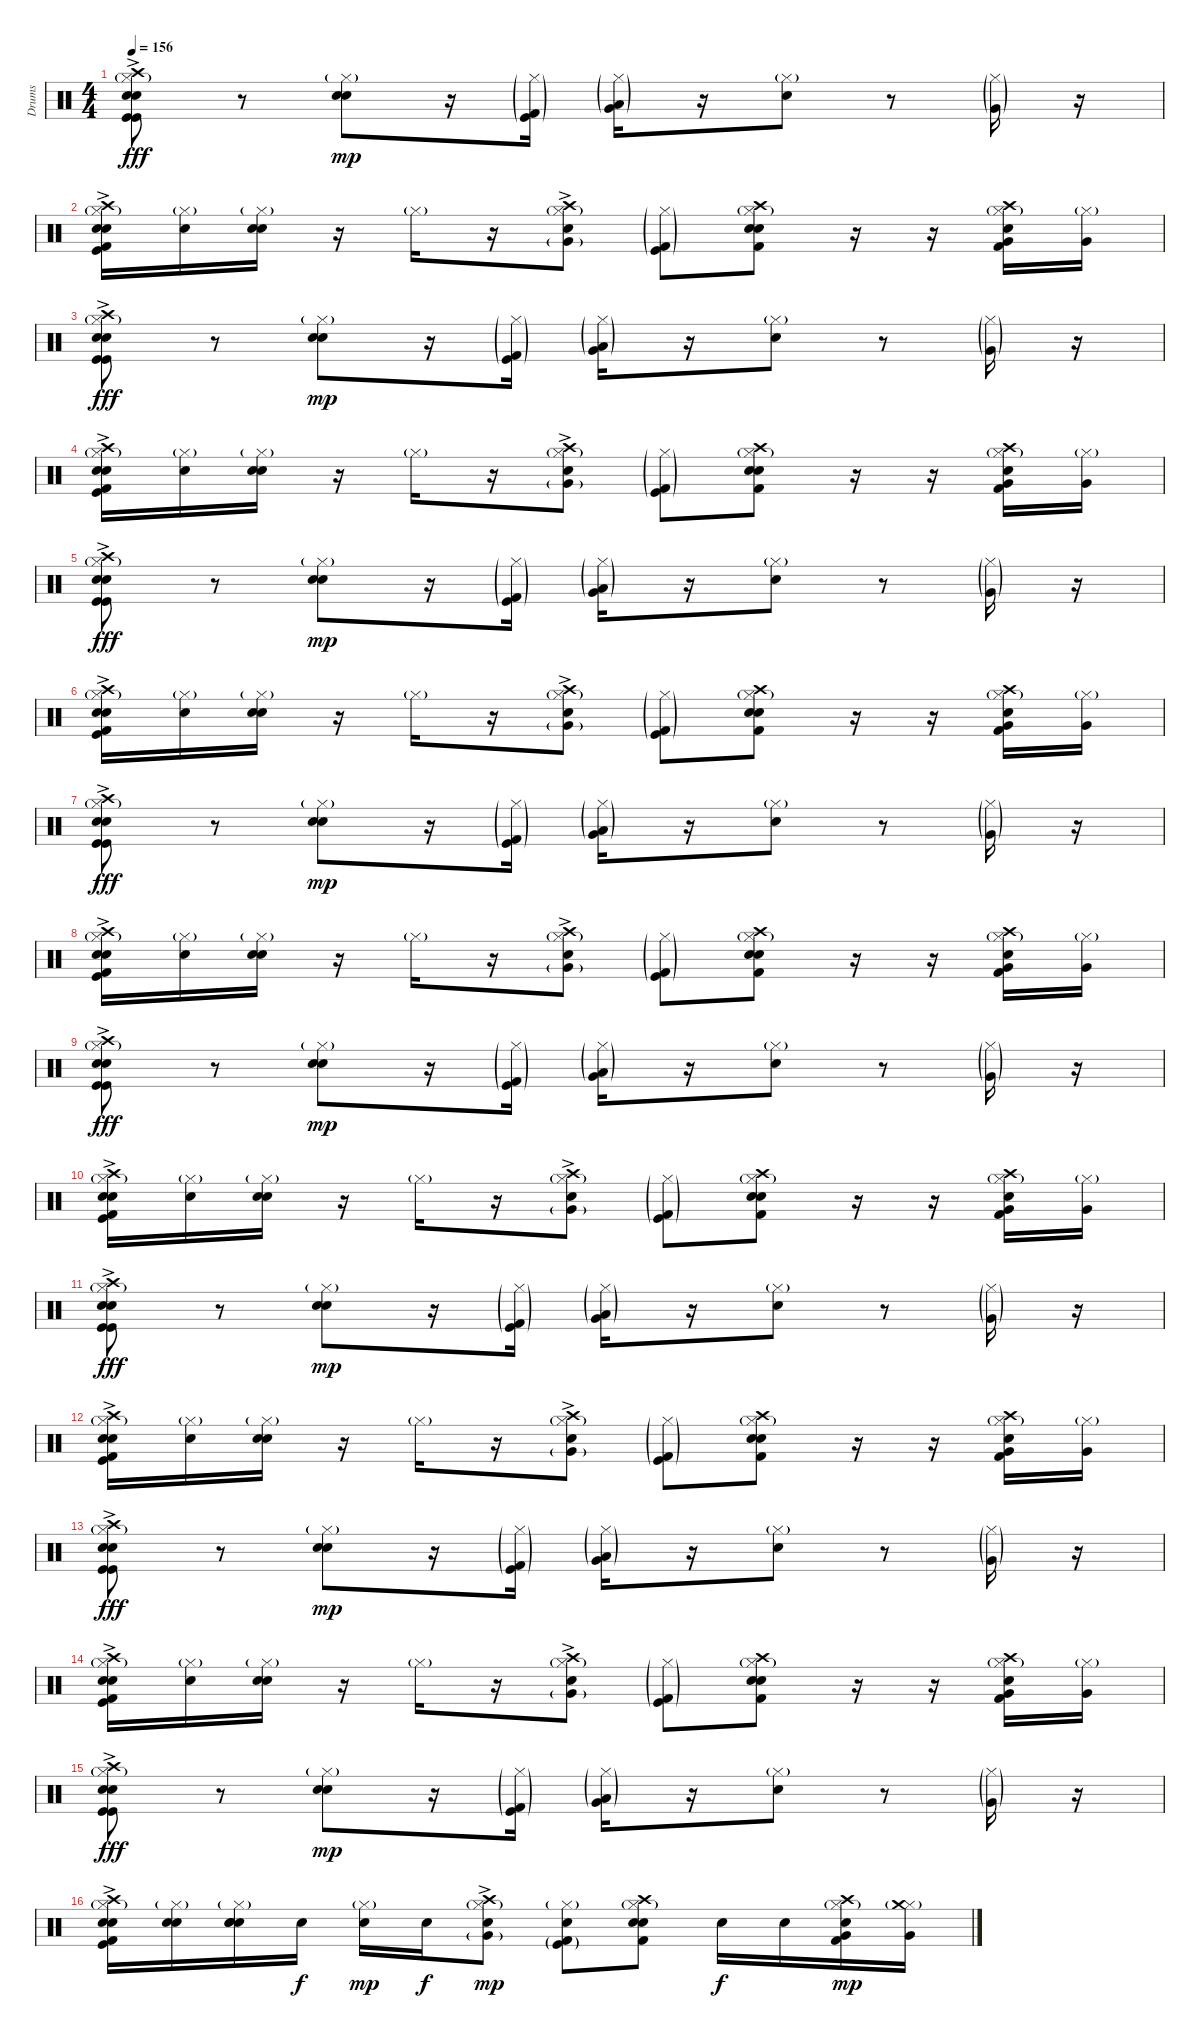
\track ("Drums" "Drums") {instrument percussion}
\staff {score}
\articulation defaults
\ts (4 4)
\tempo 156
\clef neutral
\ks c
("Hi-Hat (closed)"{g} "Electric Snare (hit)"{ac} "Kick (hit)"{ac} "Kick (hit)"{ac} "Electric Snare (hit)"{ac} "Crash high (hit)"{ac}).8{dy fff volume 13} r.8 ("Electric Snare (hit)" "Electric Snare (hit)" "Hi-Hat (closed)"{g}).8{dy mp} r.16 ("Hi-Hat (closed)"{g} "Kick (hit)"{g} "Kick (hit) 2"{g}).16 ("Very Low Tom (hit)"{g} "Low Tom (hit)"{g} "Hi-Hat (closed)"{g}).16 r.16 ("Electric Snare (hit)" "Hi-Hat (closed)"{g}).8 r.8 ("Very Low Tom (hit)"{g} "Hi-Hat (closed)"{g}).16 r.16 |
("Crash high (hit)" "Electric Snare (hit)"{ac} "Electric Snare (hit)"{ac} "Kick (hit) 2"{ac} "Kick (hit)"{ac} "Hi-Hat (closed)"{g}).16{volume 13} ("Electric Snare (hit)" "Hi-Hat (closed)"{g}).16 ("Electric Snare (hit)" "Electric Snare (hit)" "Hi-Hat (closed)"{g}).16 r.16 "Hi-Hat (closed)"{g}.16 r.16 ("Electric Snare (hit)"{ac} "Very Low Tom (hit)"{g} "Hi-Hat (closed)"{g} "Crash high (hit)").8 ("Hi-Hat (closed)"{g} "Kick (hit) 2"{g} "Kick (hit)"{g}).8 ("Electric Snare (hit)" "Electric Snare (hit)" "Hi-Hat (closed)"{g} "Kick (hit) 2" "Crash high (hit)").8 r.16 r.16 ("Very Low Tom (hit)" "Electric Snare (hit)" "Hi-Hat (closed)"{g} "Kick (hit) 2" "Crash high (hit)").16 ("Very Low Tom (hit)" "Hi-Hat (closed)"{g}).16 |
("Hi-Hat (closed)"{g} "Electric Snare (hit)"{ac} "Kick (hit)"{ac} "Kick (hit)"{ac} "Electric Snare (hit)"{ac} "Crash high (hit)"{ac}).8{dy fff volume 13} r.8 ("Electric Snare (hit)" "Electric Snare (hit)" "Hi-Hat (closed)"{g}).8{dy mp} r.16 ("Hi-Hat (closed)"{g} "Kick (hit)"{g} "Kick (hit) 2"{g}).16 ("Very Low Tom (hit)"{g} "Low Tom (hit)"{g} "Hi-Hat (closed)"{g}).16 r.16 ("Electric Snare (hit)" "Hi-Hat (closed)"{g}).8 r.8 ("Very Low Tom (hit)"{g} "Hi-Hat (closed)"{g}).16 r.16 |
("Crash high (hit)" "Electric Snare (hit)"{ac} "Electric Snare (hit)"{ac} "Kick (hit) 2"{ac} "Kick (hit)"{ac} "Hi-Hat (closed)"{g}).16{volume 13} ("Electric Snare (hit)" "Hi-Hat (closed)"{g}).16 ("Electric Snare (hit)" "Electric Snare (hit)" "Hi-Hat (closed)"{g}).16 r.16 "Hi-Hat (closed)"{g}.16 r.16 ("Electric Snare (hit)"{ac} "Very Low Tom (hit)"{g} "Hi-Hat (closed)"{g} "Crash high (hit)").8 ("Hi-Hat (closed)"{g} "Kick (hit) 2"{g} "Kick (hit)"{g}).8 ("Electric Snare (hit)" "Electric Snare (hit)" "Hi-Hat (closed)"{g} "Kick (hit) 2" "Crash high (hit)").8 r.16 r.16 ("Very Low Tom (hit)" "Electric Snare (hit)" "Hi-Hat (closed)"{g} "Kick (hit) 2" "Crash high (hit)").16 ("Very Low Tom (hit)" "Hi-Hat (closed)"{g}).16 |
("Hi-Hat (closed)"{g} "Electric Snare (hit)"{ac} "Kick (hit)"{ac} "Kick (hit)"{ac} "Electric Snare (hit)"{ac} "Crash high (hit)"{ac}).8{dy fff volume 13} r.8 ("Electric Snare (hit)" "Electric Snare (hit)" "Hi-Hat (closed)"{g}).8{dy mp} r.16 ("Hi-Hat (closed)"{g} "Kick (hit)"{g} "Kick (hit) 2"{g}).16 ("Very Low Tom (hit)"{g} "Low Tom (hit)"{g} "Hi-Hat (closed)"{g}).16 r.16 ("Electric Snare (hit)" "Hi-Hat (closed)"{g}).8 r.8 ("Very Low Tom (hit)"{g} "Hi-Hat (closed)"{g}).16 r.16 |
("Crash high (hit)" "Electric Snare (hit)"{ac} "Electric Snare (hit)"{ac} "Kick (hit) 2"{ac} "Kick (hit)"{ac} "Hi-Hat (closed)"{g}).16{volume 13} ("Electric Snare (hit)" "Hi-Hat (closed)"{g}).16 ("Electric Snare (hit)" "Electric Snare (hit)" "Hi-Hat (closed)"{g}).16 r.16 "Hi-Hat (closed)"{g}.16 r.16 ("Electric Snare (hit)"{ac} "Very Low Tom (hit)"{g} "Hi-Hat (closed)"{g} "Crash high (hit)").8 ("Hi-Hat (closed)"{g} "Kick (hit) 2"{g} "Kick (hit)"{g}).8 ("Electric Snare (hit)" "Electric Snare (hit)" "Hi-Hat (closed)"{g} "Kick (hit) 2" "Crash high (hit)").8 r.16 r.16 ("Very Low Tom (hit)" "Electric Snare (hit)" "Hi-Hat (closed)"{g} "Kick (hit) 2" "Crash high (hit)").16 ("Very Low Tom (hit)" "Hi-Hat (closed)"{g}).16 |
("Hi-Hat (closed)"{g} "Electric Snare (hit)"{ac} "Kick (hit)"{ac} "Kick (hit)"{ac} "Electric Snare (hit)"{ac} "Crash high (hit)"{ac}).8{dy fff volume 13} r.8 ("Electric Snare (hit)" "Electric Snare (hit)" "Hi-Hat (closed)"{g}).8{dy mp} r.16 ("Hi-Hat (closed)"{g} "Kick (hit)"{g} "Kick (hit) 2"{g}).16 ("Very Low Tom (hit)"{g} "Low Tom (hit)"{g} "Hi-Hat (closed)"{g}).16 r.16 ("Electric Snare (hit)" "Hi-Hat (closed)"{g}).8 r.8 ("Very Low Tom (hit)"{g} "Hi-Hat (closed)"{g}).16 r.16 |
("Crash high (hit)" "Electric Snare (hit)"{ac} "Electric Snare (hit)"{ac} "Kick (hit) 2"{ac} "Kick (hit)"{ac} "Hi-Hat (closed)"{g}).16{volume 13} ("Electric Snare (hit)" "Hi-Hat (closed)"{g}).16 ("Electric Snare (hit)" "Electric Snare (hit)" "Hi-Hat (closed)"{g}).16 r.16 "Hi-Hat (closed)"{g}.16 r.16 ("Electric Snare (hit)"{ac} "Very Low Tom (hit)"{g} "Hi-Hat (closed)"{g} "Crash high (hit)").8 ("Hi-Hat (closed)"{g} "Kick (hit) 2"{g} "Kick (hit)"{g}).8 ("Electric Snare (hit)" "Electric Snare (hit)" "Hi-Hat (closed)"{g} "Kick (hit) 2" "Crash high (hit)").8 r.16 r.16 ("Very Low Tom (hit)" "Electric Snare (hit)" "Hi-Hat (closed)"{g} "Kick (hit) 2" "Crash high (hit)").16 ("Very Low Tom (hit)" "Hi-Hat (closed)"{g}).16 |
("Hi-Hat (closed)"{g} "Electric Snare (hit)"{ac} "Kick (hit)"{ac} "Kick (hit)"{ac} "Electric Snare (hit)"{ac} "Crash high (hit)"{ac}).8{dy fff volume 13} r.8 ("Electric Snare (hit)" "Electric Snare (hit)" "Hi-Hat (closed)"{g}).8{dy mp} r.16 ("Hi-Hat (closed)"{g} "Kick (hit)"{g} "Kick (hit) 2"{g}).16 ("Very Low Tom (hit)"{g} "Low Tom (hit)"{g} "Hi-Hat (closed)"{g}).16 r.16 ("Electric Snare (hit)" "Hi-Hat (closed)"{g}).8 r.8 ("Very Low Tom (hit)"{g} "Hi-Hat (closed)"{g}).16 r.16 |
("Crash high (hit)" "Electric Snare (hit)"{ac} "Electric Snare (hit)"{ac} "Kick (hit) 2"{ac} "Kick (hit)"{ac} "Hi-Hat (closed)"{g}).16{volume 13} ("Electric Snare (hit)" "Hi-Hat (closed)"{g}).16 ("Electric Snare (hit)" "Electric Snare (hit)" "Hi-Hat (closed)"{g}).16 r.16 "Hi-Hat (closed)"{g}.16 r.16 ("Electric Snare (hit)"{ac} "Very Low Tom (hit)"{g} "Hi-Hat (closed)"{g} "Crash high (hit)").8 ("Hi-Hat (closed)"{g} "Kick (hit) 2"{g} "Kick (hit)"{g}).8 ("Electric Snare (hit)" "Electric Snare (hit)" "Hi-Hat (closed)"{g} "Kick (hit) 2" "Crash high (hit)").8 r.16 r.16 ("Very Low Tom (hit)" "Electric Snare (hit)" "Hi-Hat (closed)"{g} "Kick (hit) 2" "Crash high (hit)").16 ("Very Low Tom (hit)" "Hi-Hat (closed)"{g}).16 |
("Hi-Hat (closed)"{g} "Electric Snare (hit)"{ac} "Kick (hit)"{ac} "Kick (hit)"{ac} "Electric Snare (hit)"{ac} "Crash high (hit)"{ac}).8{dy fff volume 13} r.8 ("Electric Snare (hit)" "Electric Snare (hit)" "Hi-Hat (closed)"{g}).8{dy mp} r.16 ("Hi-Hat (closed)"{g} "Kick (hit)"{g} "Kick (hit) 2"{g}).16 ("Very Low Tom (hit)"{g} "Low Tom (hit)"{g} "Hi-Hat (closed)"{g}).16 r.16 ("Electric Snare (hit)" "Hi-Hat (closed)"{g}).8 r.8 ("Very Low Tom (hit)"{g} "Hi-Hat (closed)"{g}).16 r.16 |
("Crash high (hit)" "Electric Snare (hit)"{ac} "Electric Snare (hit)"{ac} "Kick (hit) 2"{ac} "Kick (hit)"{ac} "Hi-Hat (closed)"{g}).16{volume 13} ("Electric Snare (hit)" "Hi-Hat (closed)"{g}).16 ("Electric Snare (hit)" "Electric Snare (hit)" "Hi-Hat (closed)"{g}).16 r.16 "Hi-Hat (closed)"{g}.16 r.16 ("Electric Snare (hit)"{ac} "Very Low Tom (hit)"{g} "Hi-Hat (closed)"{g} "Crash high (hit)").8 ("Hi-Hat (closed)"{g} "Kick (hit) 2"{g} "Kick (hit)"{g}).8 ("Electric Snare (hit)" "Electric Snare (hit)" "Hi-Hat (closed)"{g} "Kick (hit) 2" "Crash high (hit)").8 r.16 r.16 ("Very Low Tom (hit)" "Electric Snare (hit)" "Hi-Hat (closed)"{g} "Kick (hit) 2" "Crash high (hit)").16 ("Very Low Tom (hit)" "Hi-Hat (closed)"{g}).16 |
("Hi-Hat (closed)"{g} "Electric Snare (hit)"{ac} "Kick (hit)"{ac} "Kick (hit)"{ac} "Electric Snare (hit)"{ac} "Crash high (hit)"{ac}).8{dy fff volume 13} r.8 ("Electric Snare (hit)" "Electric Snare (hit)" "Hi-Hat (closed)"{g}).8{dy mp} r.16 ("Hi-Hat (closed)"{g} "Kick (hit)"{g} "Kick (hit) 2"{g}).16 ("Very Low Tom (hit)"{g} "Low Tom (hit)"{g} "Hi-Hat (closed)"{g}).16 r.16 ("Electric Snare (hit)" "Hi-Hat (closed)"{g}).8 r.8 ("Very Low Tom (hit)"{g} "Hi-Hat (closed)"{g}).16 r.16 |
("Crash high (hit)" "Electric Snare (hit)"{ac} "Electric Snare (hit)"{ac} "Kick (hit) 2"{ac} "Kick (hit)"{ac} "Hi-Hat (closed)"{g}).16{volume 13} ("Electric Snare (hit)" "Hi-Hat (closed)"{g}).16 ("Electric Snare (hit)" "Electric Snare (hit)" "Hi-Hat (closed)"{g}).16 r.16 "Hi-Hat (closed)"{g}.16 r.16 ("Electric Snare (hit)"{ac} "Very Low Tom (hit)"{g} "Hi-Hat (closed)"{g} "Crash high (hit)").8 ("Hi-Hat (closed)"{g} "Kick (hit) 2"{g} "Kick (hit)"{g}).8 ("Electric Snare (hit)" "Electric Snare (hit)" "Hi-Hat (closed)"{g} "Kick (hit) 2" "Crash high (hit)").8 r.16 r.16 ("Very Low Tom (hit)" "Electric Snare (hit)" "Hi-Hat (closed)"{g} "Kick (hit) 2" "Crash high (hit)").16 ("Very Low Tom (hit)" "Hi-Hat (closed)"{g}).16 |
("Hi-Hat (closed)"{g} "Electric Snare (hit)"{ac} "Kick (hit)"{ac} "Kick (hit)"{ac} "Electric Snare (hit)"{ac} "Crash high (hit)"{ac}).8{dy fff volume 13} r.8 ("Electric Snare (hit)" "Electric Snare (hit)" "Hi-Hat (closed)"{g}).8{dy mp} r.16 ("Hi-Hat (closed)"{g} "Kick (hit)"{g} "Kick (hit) 2"{g}).16 ("Very Low Tom (hit)"{g} "Low Tom (hit)"{g} "Hi-Hat (closed)"{g}).16 r.16 ("Electric Snare (hit)" "Hi-Hat (closed)"{g}).8 r.8 ("Very Low Tom (hit)"{g} "Hi-Hat (closed)"{g}).16 r.16 |
("Crash high (hit)" "Electric Snare (hit)"{ac} "Electric Snare (hit)"{ac} "Kick (hit) 2"{ac} "Kick (hit)"{ac} "Hi-Hat (closed)"{g}).16{volume 13} ("Electric Snare (hit)" "Hi-Hat (closed)"{g} "Electric Snare (hit)").16 ("Electric Snare (hit)" "Electric Snare (hit)" "Hi-Hat (closed)"{g} "Electric Snare (hit)").16 "Electric Snare (hit)".16{dy f} ("Hi-Hat (closed)"{g} "Electric Snare (hit)").16{dy mp} "Electric Snare (hit)".16{dy f} ("Electric Snare (hit)"{ac} "Very Low Tom (hit)"{g} "Hi-Hat (closed)"{g} "Crash high (hit)").8{dy mp} ("Hi-Hat (closed)"{g} "Kick (hit) 2"{g} "Kick (hit)"{g} "Electric Snare (hit)").8 ("Electric Snare (hit)" "Electric Snare (hit)" "Hi-Hat (closed)"{g} "Kick (hit) 2" "Crash high (hit)").8 "Electric Snare (hit)".16{dy f} "Electric Snare (hit)".16 ("Very Low Tom (hit)" "Electric Snare (hit)" "Hi-Hat (closed)"{g} "Kick (hit) 2" "Crash high (hit)").16{dy mp} ("Very Low Tom (hit)" "Hi-Hat (closed)"{g} "Crash medium (hit)").16
